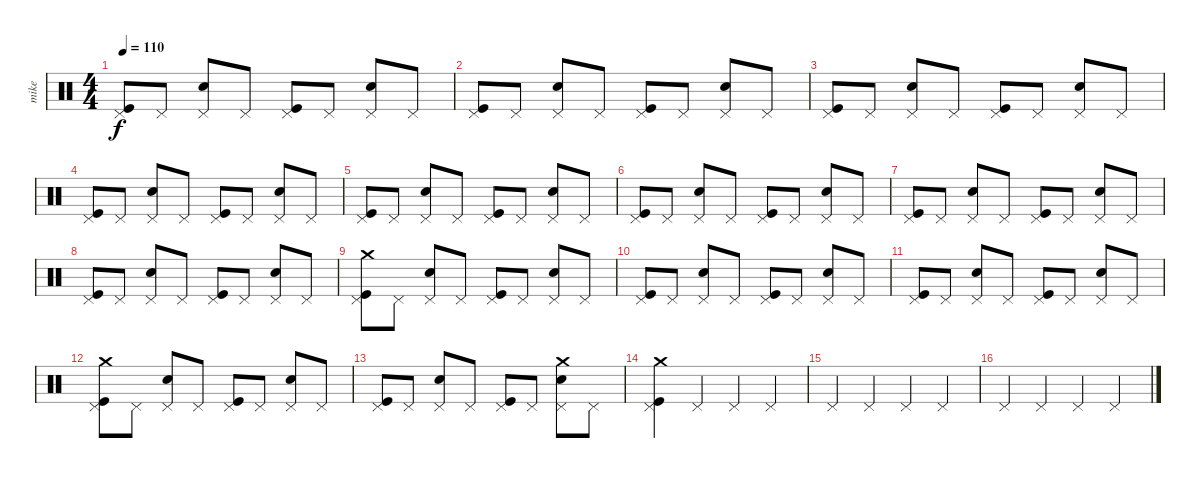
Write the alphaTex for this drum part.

\track ("mike" "mike") {instrument percussion}
\staff {score}
\articulation defaults
\ts (4 4)
\tempo 110
\clef neutral
\ks c
("Pedal Hi-Hat (hit)" "Kick (hit)").8{dy f} "Pedal Hi-Hat (hit)".8 ("Pedal Hi-Hat (hit)" "Electric Snare (hit)").8 "Pedal Hi-Hat (hit)".8 ("Pedal Hi-Hat (hit)" "Kick (hit)").8 "Pedal Hi-Hat (hit)".8 ("Pedal Hi-Hat (hit)" "Electric Snare (hit)").8 "Pedal Hi-Hat (hit)".8 |
("Pedal Hi-Hat (hit)" "Kick (hit)").8 "Pedal Hi-Hat (hit)".8 ("Pedal Hi-Hat (hit)" "Electric Snare (hit)").8 "Pedal Hi-Hat (hit)".8 ("Pedal Hi-Hat (hit)" "Kick (hit)").8 "Pedal Hi-Hat (hit)".8 ("Pedal Hi-Hat (hit)" "Electric Snare (hit)").8 "Pedal Hi-Hat (hit)".8 |
("Pedal Hi-Hat (hit)" "Kick (hit)").8 "Pedal Hi-Hat (hit)".8 ("Pedal Hi-Hat (hit)" "Electric Snare (hit)").8 "Pedal Hi-Hat (hit)".8 ("Pedal Hi-Hat (hit)" "Kick (hit)").8 "Pedal Hi-Hat (hit)".8 ("Pedal Hi-Hat (hit)" "Electric Snare (hit)").8 "Pedal Hi-Hat (hit)".8 |
("Pedal Hi-Hat (hit)" "Kick (hit)").8 "Pedal Hi-Hat (hit)".8 ("Pedal Hi-Hat (hit)" "Electric Snare (hit)").8 "Pedal Hi-Hat (hit)".8 ("Pedal Hi-Hat (hit)" "Kick (hit)").8 "Pedal Hi-Hat (hit)".8 ("Pedal Hi-Hat (hit)" "Electric Snare (hit)").8 "Pedal Hi-Hat (hit)".8 |
("Pedal Hi-Hat (hit)" "Kick (hit)").8 "Pedal Hi-Hat (hit)".8 ("Pedal Hi-Hat (hit)" "Electric Snare (hit)").8 "Pedal Hi-Hat (hit)".8 ("Pedal Hi-Hat (hit)" "Kick (hit)").8 "Pedal Hi-Hat (hit)".8 ("Pedal Hi-Hat (hit)" "Electric Snare (hit)").8 "Pedal Hi-Hat (hit)".8 |
("Pedal Hi-Hat (hit)" "Kick (hit)").8 "Pedal Hi-Hat (hit)".8 ("Pedal Hi-Hat (hit)" "Electric Snare (hit)").8 "Pedal Hi-Hat (hit)".8 ("Pedal Hi-Hat (hit)" "Kick (hit)").8 "Pedal Hi-Hat (hit)".8 ("Pedal Hi-Hat (hit)" "Electric Snare (hit)").8 "Pedal Hi-Hat (hit)".8 |
("Pedal Hi-Hat (hit)" "Kick (hit)").8 "Pedal Hi-Hat (hit)".8 ("Pedal Hi-Hat (hit)" "Electric Snare (hit)").8 "Pedal Hi-Hat (hit)".8 ("Pedal Hi-Hat (hit)" "Kick (hit)").8 "Pedal Hi-Hat (hit)".8 ("Pedal Hi-Hat (hit)" "Electric Snare (hit)").8 "Pedal Hi-Hat (hit)".8 |
("Pedal Hi-Hat (hit)" "Kick (hit)").8 "Pedal Hi-Hat (hit)".8 ("Pedal Hi-Hat (hit)" "Electric Snare (hit)").8 "Pedal Hi-Hat (hit)".8 ("Pedal Hi-Hat (hit)" "Kick (hit)").8 "Pedal Hi-Hat (hit)".8 ("Pedal Hi-Hat (hit)" "Electric Snare (hit)").8 "Pedal Hi-Hat (hit)".8 |
("Pedal Hi-Hat (hit)" "Kick (hit)" "Crash medium (hit)").8 "Pedal Hi-Hat (hit)".8 ("Pedal Hi-Hat (hit)" "Electric Snare (hit)").8 "Pedal Hi-Hat (hit)".8 ("Pedal Hi-Hat (hit)" "Kick (hit)").8 "Pedal Hi-Hat (hit)".8 ("Pedal Hi-Hat (hit)" "Electric Snare (hit)").8 "Pedal Hi-Hat (hit)".8 |
("Pedal Hi-Hat (hit)" "Kick (hit)").8 "Pedal Hi-Hat (hit)".8 ("Pedal Hi-Hat (hit)" "Electric Snare (hit)").8 "Pedal Hi-Hat (hit)".8 ("Pedal Hi-Hat (hit)" "Kick (hit)").8 "Pedal Hi-Hat (hit)".8 ("Pedal Hi-Hat (hit)" "Electric Snare (hit)").8 "Pedal Hi-Hat (hit)".8 |
("Pedal Hi-Hat (hit)" "Kick (hit)").8 "Pedal Hi-Hat (hit)".8 ("Pedal Hi-Hat (hit)" "Electric Snare (hit)").8 "Pedal Hi-Hat (hit)".8 ("Pedal Hi-Hat (hit)" "Kick (hit)").8 "Pedal Hi-Hat (hit)".8 ("Pedal Hi-Hat (hit)" "Electric Snare (hit)").8 "Pedal Hi-Hat (hit)".8 |
("Pedal Hi-Hat (hit)" "Kick (hit)" "Crash medium (hit)").8 "Pedal Hi-Hat (hit)".8 ("Pedal Hi-Hat (hit)" "Electric Snare (hit)").8 "Pedal Hi-Hat (hit)".8 ("Pedal Hi-Hat (hit)" "Kick (hit)").8 "Pedal Hi-Hat (hit)".8 ("Pedal Hi-Hat (hit)" "Electric Snare (hit)").8 "Pedal Hi-Hat (hit)".8 |
("Pedal Hi-Hat (hit)" "Kick (hit)").8 "Pedal Hi-Hat (hit)".8 ("Pedal Hi-Hat (hit)" "Electric Snare (hit)").8 "Pedal Hi-Hat (hit)".8 ("Pedal Hi-Hat (hit)" "Kick (hit)").8 "Pedal Hi-Hat (hit)".8 ("Pedal Hi-Hat (hit)" "Electric Snare (hit)" "Crash medium (hit)").8 "Pedal Hi-Hat (hit)".8 |
("Pedal Hi-Hat (hit)" "Crash medium (hit)" "Kick (hit)").4 "Pedal Hi-Hat (hit)".4 "Pedal Hi-Hat (hit)".4 "Pedal Hi-Hat (hit)".4 |
"Pedal Hi-Hat (hit)".4 "Pedal Hi-Hat (hit)".4 "Pedal Hi-Hat (hit)".4 "Pedal Hi-Hat (hit)".4 |
"Pedal Hi-Hat (hit)".4 "Pedal Hi-Hat (hit)".4 "Pedal Hi-Hat (hit)".4 "Pedal Hi-Hat (hit)".4
